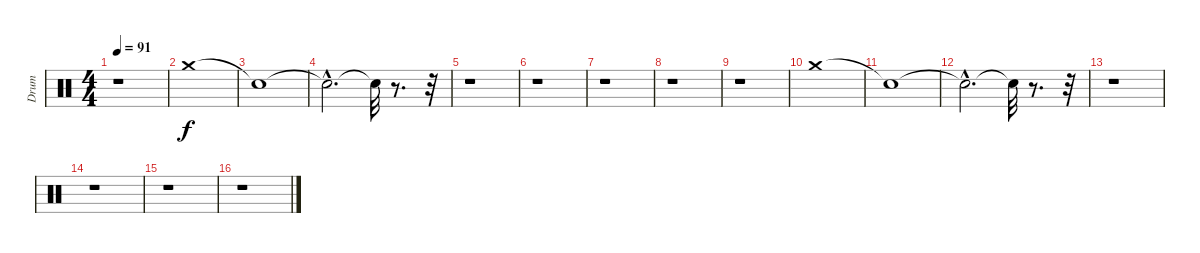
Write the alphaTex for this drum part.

\track ("Drum" "Drum") {instrument percussion}
\staff {score}
\articulation defaults
\ts (4 4)
\tempo 91
\clef neutral
\ks c
r.1{dy f} |
"Crash medium (hit)".1 |
"Snare (hit)"{t}.1 |
"Snare (hit)"{hac t}.2{d} "Snare (hit)"{t}.32 r.8{d} r.32 |
r.1 |
r.1 |
r.1 |
r.1 |
r.1 |
"Crash medium (hit)".1 |
"Snare (hit)"{t}.1 |
"Snare (hit)"{hac t}.2{d} "Snare (hit)"{t}.32 r.8{d} r.32 |
r.1 |
r.1 |
r.1 |
r.1
